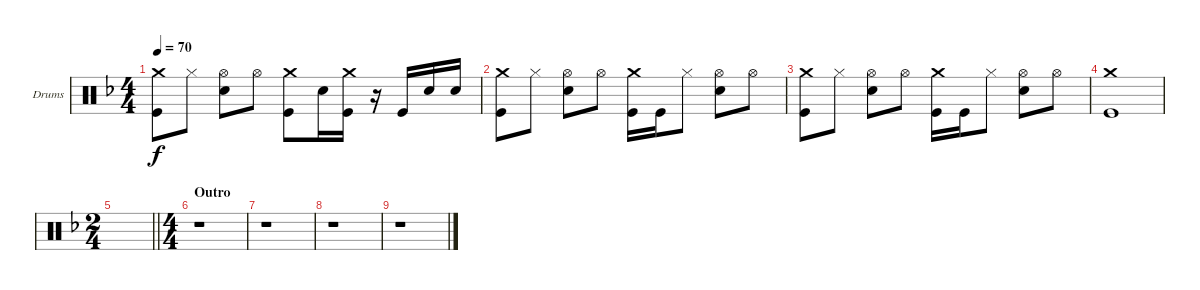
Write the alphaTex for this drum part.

\bracketExtendMode groupsimilarinstruments
\firstSystemTrackNameOrientation horizontal
\otherSystemsTrackNameOrientation horizontal
\track ("Барабаны" "Drums") {instrument percussion}
\staff {score}
\articulation defaults
\ts (4 4)
\tempo 70
\clef neutral
\ks dminor
("Kick (hit)" "Crash medium (hit)").8{dy f} "Hi-Hat (closed)".8 ("Snare (hit) 2" "Hi-Hat (open)").8 "Hi-Hat (open)".8 ("Kick (hit)" "Crash medium (hit)").8 "Snare (hit) 2".16 ("Kick (hit)" "Crash medium (hit)").16 r.16 "Kick (hit)".16 "Snare (hit) 2".16 "Snare (hit) 2".16 |
("Kick (hit)" "Crash medium (hit)").8 "Hi-Hat (closed)".8 ("Snare (hit) 2" "Hi-Hat (open)").8 "Hi-Hat (open)".8 ("Kick (hit)" "Crash medium (hit)").16 "Kick (hit)".16 "Hi-Hat (closed)".8 ("Snare (hit) 2" "Hi-Hat (open)").8 "Hi-Hat (open)".8 |
("Kick (hit)" "Crash medium (hit)").8 "Hi-Hat (closed)".8 ("Snare (hit) 2" "Hi-Hat (open)").8 "Hi-Hat (open)".8 ("Kick (hit)" "Crash medium (hit)").16 "Kick (hit)".16 "Hi-Hat (closed)".8 ("Snare (hit) 2" "Hi-Hat (open)").8 "Hi-Hat (open)".8 |
("Kick (hit)" "Crash medium (hit)").1 |
\ts (2 4)
\beaming (8 2 2)
\barLineRight lightlight
|
\ts (4 4)
\beaming (8 2 2 2 2)
\section ("" "Outro")
r.1 |
r.1 |
r.1 |
r.1
